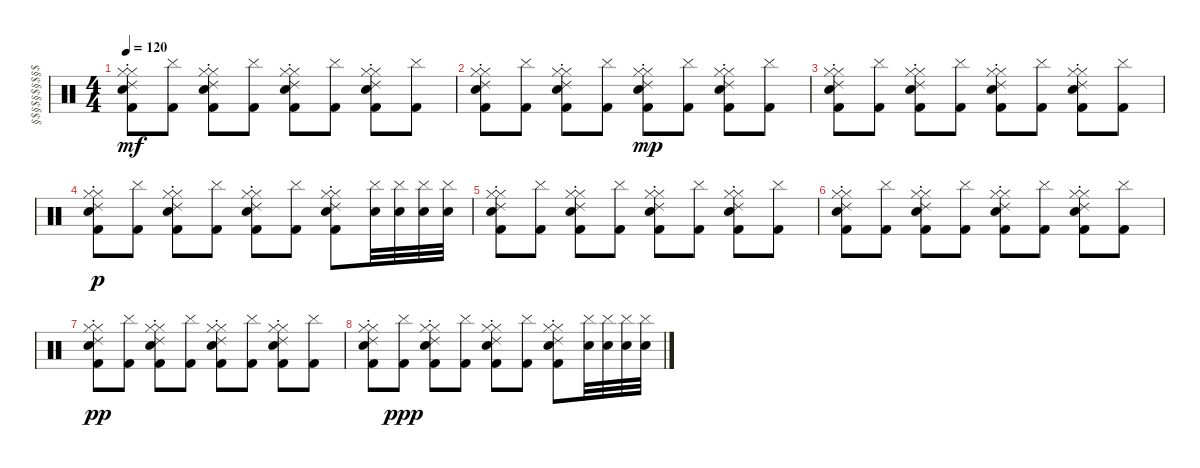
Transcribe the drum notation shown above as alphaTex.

\track ("§$§$§$§$§$§$§$§" "§$§$§$§$§$") {instrument percussion}
\staff {score}
\articulation defaults
\ts (4 4)
\tempo 120
\clef neutral
\ks c
("Ride (choke) 2" "Hi-Hat (closed)" "Kick (hit) 2" "Hi-Hat (closed)" "Electric Snare (hit)").8{dy mf} ("Cymbal (hit)" "Kick (hit) 2").8 ("Ride (choke) 2" "Hi-Hat (closed)" "Kick (hit) 2" "Hi-Hat (closed)" "Electric Snare (hit)").8 ("Cymbal (hit)" "Kick (hit) 2").8 ("Ride (choke) 2" "Hi-Hat (closed)" "Kick (hit) 2" "Hi-Hat (closed)" "Electric Snare (hit)").8 ("Cymbal (hit)" "Kick (hit) 2").8 ("Ride (choke) 2" "Hi-Hat (closed)" "Kick (hit) 2" "Hi-Hat (closed)" "Electric Snare (hit)").8 ("Cymbal (hit)" "Kick (hit) 2").8 |
("Ride (choke) 2" "Hi-Hat (closed)" "Kick (hit) 2" "Hi-Hat (closed)" "Electric Snare (hit)").8 ("Cymbal (hit)" "Kick (hit) 2").8 ("Ride (choke) 2" "Hi-Hat (closed)" "Kick (hit) 2" "Hi-Hat (closed)" "Electric Snare (hit)").8 ("Cymbal (hit)" "Kick (hit) 2").8 ("Ride (choke) 2" "Hi-Hat (closed)" "Kick (hit) 2" "Hi-Hat (closed)" "Electric Snare (hit)").8{dy mp} ("Cymbal (hit)" "Kick (hit) 2").8 ("Ride (choke) 2" "Hi-Hat (closed)" "Kick (hit) 2" "Hi-Hat (closed)" "Electric Snare (hit)").8 ("Cymbal (hit)" "Kick (hit) 2").8 |
("Ride (choke) 2" "Hi-Hat (closed)" "Kick (hit) 2" "Hi-Hat (closed)" "Electric Snare (hit)").8 ("Cymbal (hit)" "Kick (hit) 2").8 ("Ride (choke) 2" "Hi-Hat (closed)" "Kick (hit) 2" "Hi-Hat (closed)" "Electric Snare (hit)").8 ("Cymbal (hit)" "Kick (hit) 2").8 ("Ride (choke) 2" "Hi-Hat (closed)" "Kick (hit) 2" "Hi-Hat (closed)" "Electric Snare (hit)").8 ("Cymbal (hit)" "Kick (hit) 2").8 ("Ride (choke) 2" "Hi-Hat (closed)" "Kick (hit) 2" "Hi-Hat (closed)" "Electric Snare (hit)").8 ("Cymbal (hit)" "Kick (hit) 2").8 |
("Ride (choke) 2" "Hi-Hat (closed)" "Kick (hit) 2" "Hi-Hat (closed)" "Electric Snare (hit)").8{dy p} ("Cymbal (hit)" "Kick (hit) 2").8 ("Ride (choke) 2" "Hi-Hat (closed)" "Kick (hit) 2" "Hi-Hat (closed)" "Electric Snare (hit)").8 ("Cymbal (hit)" "Kick (hit) 2").8 ("Ride (choke) 2" "Hi-Hat (closed)" "Kick (hit) 2" "Hi-Hat (closed)" "Electric Snare (hit)").8 ("Cymbal (hit)" "Kick (hit) 2").8 ("Ride (choke) 2" "Hi-Hat (closed)" "Kick (hit) 2" "Hi-Hat (closed)" "Electric Snare (hit)").8 ("Cymbal (hit)" "Electric Snare (hit)").32 ("Cymbal (hit)" "Electric Snare (hit)").32 ("Cymbal (hit)" "Electric Snare (hit)").32 ("Cymbal (hit)" "Electric Snare (hit)").32 |
("Ride (choke) 2" "Hi-Hat (closed)" "Kick (hit) 2" "Hi-Hat (closed)" "Electric Snare (hit)").8 ("Cymbal (hit)" "Kick (hit) 2").8 ("Ride (choke) 2" "Hi-Hat (closed)" "Kick (hit) 2" "Hi-Hat (closed)" "Electric Snare (hit)").8 ("Cymbal (hit)" "Kick (hit) 2").8 ("Ride (choke) 2" "Hi-Hat (closed)" "Kick (hit) 2" "Hi-Hat (closed)" "Electric Snare (hit)").8 ("Cymbal (hit)" "Kick (hit) 2").8 ("Ride (choke) 2" "Hi-Hat (closed)" "Kick (hit) 2" "Hi-Hat (closed)" "Electric Snare (hit)").8 ("Cymbal (hit)" "Kick (hit) 2").8 |
("Ride (choke) 2" "Hi-Hat (closed)" "Kick (hit) 2" "Hi-Hat (closed)" "Electric Snare (hit)").8 ("Cymbal (hit)" "Kick (hit) 2").8 ("Ride (choke) 2" "Hi-Hat (closed)" "Kick (hit) 2" "Hi-Hat (closed)" "Electric Snare (hit)").8 ("Cymbal (hit)" "Kick (hit) 2").8 ("Ride (choke) 2" "Hi-Hat (closed)" "Kick (hit) 2" "Hi-Hat (closed)" "Electric Snare (hit)").8 ("Cymbal (hit)" "Kick (hit) 2").8 ("Ride (choke) 2" "Hi-Hat (closed)" "Kick (hit) 2" "Hi-Hat (closed)" "Electric Snare (hit)").8 ("Cymbal (hit)" "Kick (hit) 2").8 |
("Ride (choke) 2" "Hi-Hat (closed)" "Kick (hit) 2" "Hi-Hat (closed)" "Electric Snare (hit)").8{dy pp} ("Cymbal (hit)" "Kick (hit) 2").8 ("Ride (choke) 2" "Hi-Hat (closed)" "Kick (hit) 2" "Hi-Hat (closed)" "Electric Snare (hit)").8 ("Cymbal (hit)" "Kick (hit) 2").8 ("Ride (choke) 2" "Hi-Hat (closed)" "Kick (hit) 2" "Hi-Hat (closed)" "Electric Snare (hit)").8 ("Cymbal (hit)" "Kick (hit) 2").8 ("Ride (choke) 2" "Hi-Hat (closed)" "Kick (hit) 2" "Hi-Hat (closed)" "Electric Snare (hit)").8 ("Cymbal (hit)" "Kick (hit) 2").8 |
("Ride (choke) 2" "Hi-Hat (closed)" "Kick (hit) 2" "Hi-Hat (closed)" "Electric Snare (hit)").8 ("Cymbal (hit)" "Kick (hit) 2").8{dy ppp} ("Ride (choke) 2" "Hi-Hat (closed)" "Kick (hit) 2" "Hi-Hat (closed)" "Electric Snare (hit)").8 ("Cymbal (hit)" "Kick (hit) 2").8 ("Ride (choke) 2" "Hi-Hat (closed)" "Kick (hit) 2" "Hi-Hat (closed)" "Electric Snare (hit)").8 ("Cymbal (hit)" "Kick (hit) 2").8 ("Ride (choke) 2" "Hi-Hat (closed)" "Kick (hit) 2" "Hi-Hat (closed)" "Electric Snare (hit)").8 ("Cymbal (hit)" "Electric Snare (hit)").32 ("Cymbal (hit)" "Electric Snare (hit)").32 ("Cymbal (hit)" "Electric Snare (hit)").32 ("Cymbal (hit)" "Electric Snare (hit)").32
